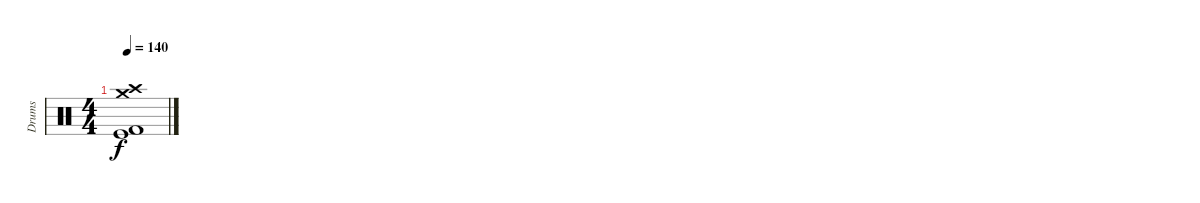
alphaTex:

\track ("Drums" "Drums") {instrument percussion}
\staff {score}
\articulation defaults
\ts (4 4)
\tempo 140
\clef neutral
\ks c
("Kick (hit) 2" "Crash medium (hit)" "Crash high (hit)" "Kick (hit)").1{dy f}
